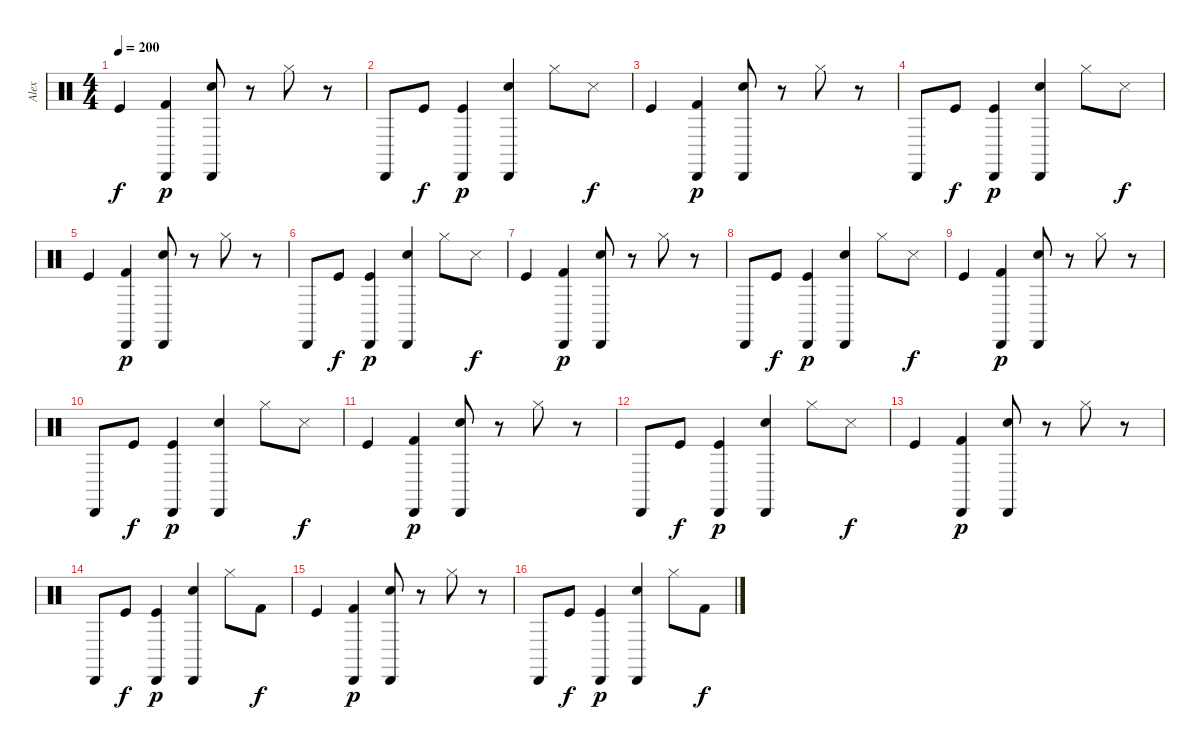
\track ("Alex" "Alex") {instrument percussion}
\staff {score}
\articulation defaults
\ts (4 4)
\tempo 200
\clef neutral
\ks c "Kick (hit)".4{dy f}
("Kick (hit) 2" "Cabasa (hit)").4{dy p} ("Electric Snare (hit)" "Cabasa (hit)").8 r.8 "Hi-Hat (closed)".8 r.8 |
"Cabasa (hit)".8 "Kick (hit)".8{dy f} ("Kick (hit)" "Cabasa (hit)").4{dy p} ("Electric Snare (hit)" "Cabasa (hit)").4 "Hi-Hat (closed)".8 "Metronome (hit)".8{dy f} |
"Kick (hit)".4 ("Kick (hit) 2" "Cabasa (hit)").4{dy p} ("Electric Snare (hit)" "Cabasa (hit)").8 r.8 "Hi-Hat (closed)".8 r.8 |
"Cabasa (hit)".8 "Kick (hit)".8{dy f} ("Kick (hit)" "Cabasa (hit)").4{dy p} ("Electric Snare (hit)" "Cabasa (hit)").4 "Hi-Hat (closed)".8 "Metronome (hit)".8{dy f} |
"Kick (hit)".4 ("Kick (hit) 2" "Cabasa (hit)").4{dy p} ("Electric Snare (hit)" "Cabasa (hit)").8 r.8 "Hi-Hat (closed)".8 r.8 |
"Cabasa (hit)".8 "Kick (hit)".8{dy f} ("Kick (hit)" "Cabasa (hit)").4{dy p} ("Electric Snare (hit)" "Cabasa (hit)").4 "Hi-Hat (closed)".8 "Metronome (hit)".8{dy f} |
"Kick (hit)".4 ("Kick (hit) 2" "Cabasa (hit)").4{dy p} ("Electric Snare (hit)" "Cabasa (hit)").8 r.8 "Hi-Hat (closed)".8 r.8 |
"Cabasa (hit)".8 "Kick (hit)".8{dy f} ("Kick (hit)" "Cabasa (hit)").4{dy p} ("Electric Snare (hit)" "Cabasa (hit)").4 "Hi-Hat (closed)".8 "Metronome (hit)".8{dy f} |
"Kick (hit)".4 ("Kick (hit) 2" "Cabasa (hit)").4{dy p} ("Electric Snare (hit)" "Cabasa (hit)").8 r.8 "Hi-Hat (closed)".8 r.8 |
"Cabasa (hit)".8 "Kick (hit)".8{dy f} ("Kick (hit)" "Cabasa (hit)").4{dy p} ("Electric Snare (hit)" "Cabasa (hit)").4 "Hi-Hat (closed)".8 "Metronome (hit)".8{dy f} |
"Kick (hit)".4 ("Kick (hit) 2" "Cabasa (hit)").4{dy p} ("Electric Snare (hit)" "Cabasa (hit)").8 r.8 "Hi-Hat (closed)".8 r.8 |
"Cabasa (hit)".8 "Kick (hit)".8{dy f} ("Kick (hit)" "Cabasa (hit)").4{dy p} ("Electric Snare (hit)" "Cabasa (hit)").4 "Hi-Hat (closed)".8 "Metronome (hit)".8{dy f} |
"Kick (hit)".4 ("Kick (hit) 2" "Cabasa (hit)").4{dy p} ("Electric Snare (hit)" "Cabasa (hit)").8 r.8 "Hi-Hat (closed)".8 r.8 |
"Cabasa (hit)".8 "Kick (hit)".8{dy f} ("Kick (hit)" "Cabasa (hit)").4{dy p} ("Electric Snare (hit)" "Cabasa (hit)").4 "Hi-Hat (closed)".8 "Kick (hit) 2".8{dy f} |
"Kick (hit)".4 ("Kick (hit) 2" "Cabasa (hit)").4{dy p} ("Electric Snare (hit)" "Cabasa (hit)").8 r.8 "Hi-Hat (closed)".8 r.8 |
"Cabasa (hit)".8 "Kick (hit)".8{dy f} ("Kick (hit)" "Cabasa (hit)").4{dy p} ("Electric Snare (hit)" "Cabasa (hit)").4 "Hi-Hat (closed)".8 "Kick (hit) 2".8{dy f}
